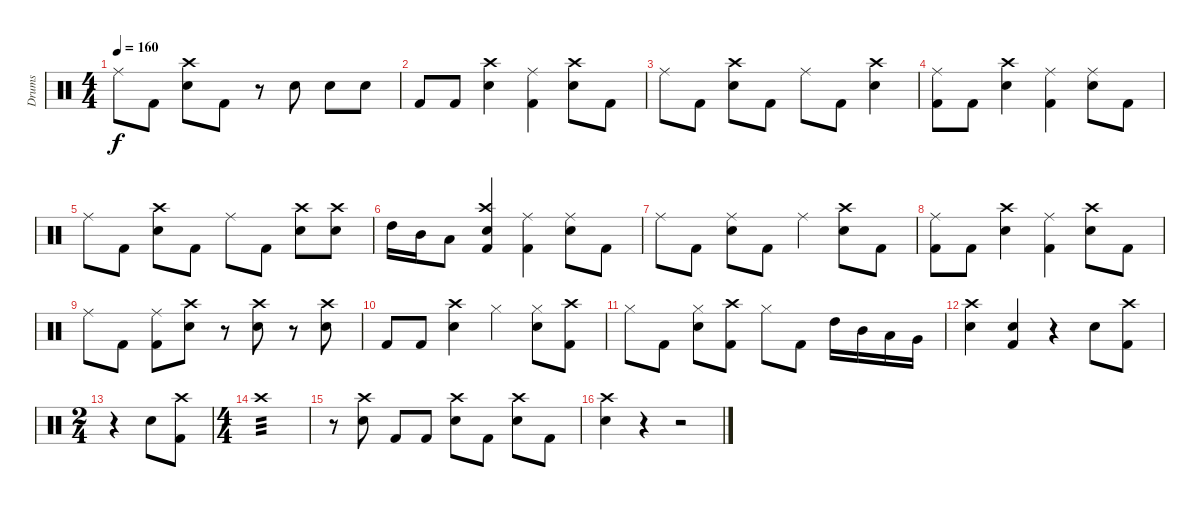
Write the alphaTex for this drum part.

\track ("Drums" "Drums") {instrument percussion}
\staff {score}
\articulation defaults
\ts (4 4)
\tempo 160
\clef neutral
\ks c "Ride (middle)".8{dy f} "Kick (hit) 2".8
("Crash high (hit)" "Electric Snare (hit)").8 "Kick (hit) 2".8 r.8 "Electric Snare (hit)".8 "Electric Snare (hit)".8 "Electric Snare (hit)".8 |
"Kick (hit) 2".8 "Kick (hit) 2".8 ("Crash high (hit)" "Electric Snare (hit)").4 ("Ride (middle)" "Kick (hit) 2").4 ("Crash high (hit)" "Electric Snare (hit)").8 "Kick (hit) 2".8 |
"Ride (middle)".8 "Kick (hit) 2".8 ("Crash high (hit)" "Electric Snare (hit)").8 "Kick (hit) 2".8 "Ride (middle)".8 "Kick (hit) 2".8 ("Crash high (hit)" "Electric Snare (hit)").4 |
("Ride (middle)" "Kick (hit) 2").8 "Kick (hit) 2".8 ("Crash high (hit)" "Electric Snare (hit)").4 ("Ride (middle)" "Kick (hit) 2").4 ("Ride (middle)" "Electric Snare (hit)").8 "Kick (hit) 2".8 |
"Ride (middle)".8 "Kick (hit) 2".8 ("Crash high (hit)" "Electric Snare (hit)").8 "Kick (hit) 2".8 "Ride (middle)".8 "Kick (hit) 2".8 ("Crash high (hit)" "Electric Snare (hit)").8 ("Crash high (hit)" "Electric Snare (hit)").8 |
"High Tom (hit)".16 "Mid Tom (hit)".16 "Low Tom (hit)".8 ("Crash high (hit)" "Electric Snare (hit)" "Kick (hit) 2").4 ("Ride (middle)" "Kick (hit) 2").4 ("Ride (middle)" "Electric Snare (hit)").8 "Kick (hit) 2".8 |
"Ride (middle)".8 "Kick (hit) 2".8 ("Ride (middle)" "Electric Snare (hit)").8 "Kick (hit) 2".8 "Ride (middle)".4 ("Crash high (hit)" "Electric Snare (hit)").8 "Kick (hit) 2".8 |
("Ride (middle)" "Kick (hit) 2").8 "Kick (hit) 2".8 ("Crash high (hit)" "Electric Snare (hit)").4 ("Ride (middle)" "Kick (hit) 2").4 ("Crash high (hit)" "Electric Snare (hit)").8 "Kick (hit) 2".8 |
"Ride (middle)".8 "Kick (hit) 2".8 ("Ride (middle)" "Kick (hit) 2").8 ("Crash high (hit)" "Electric Snare (hit)").8 r.8 ("Crash high (hit)" "Electric Snare (hit)").8 r.8 ("Crash high (hit)" "Electric Snare (hit)").8 |
"Kick (hit) 2".8 "Kick (hit) 2".8 ("Crash high (hit)" "Electric Snare (hit)").4 "Hi-Hat (closed)".4 ("Hi-Hat (closed)" "Electric Snare (hit)").8 ("Crash high (hit)" "Kick (hit) 2").8 |
"Hi-Hat (closed)".8 "Kick (hit) 2".8 ("Hi-Hat (closed)" "Electric Snare (hit)").8 ("Crash high (hit)" "Kick (hit) 2").8 "Hi-Hat (closed)".8 "Kick (hit) 2".8 "High Tom (hit)".16 "Mid Tom (hit)".16 "Low Tom (hit)".16 "Very Low Tom (hit)".16 |
("Crash high (hit)" "Electric Snare (hit)").4 ("Electric Snare (hit)" "Kick (hit) 2").4 r.4 "Electric Snare (hit)".8 ("Crash high (hit)" "Kick (hit) 2").8 |
\ts (2 4)
r.4 "Electric Snare (hit)".8 ("Crash high (hit)" "Kick (hit) 2").8 |
\ts (4 4)
"Crash high (hit)".1{tp 3} |
r.8 ("Crash high (hit)" "Electric Snare (hit)").8 "Kick (hit) 2".8 "Kick (hit) 2".8 ("Crash high (hit)" "Electric Snare (hit)").8 "Kick (hit) 2".8 ("Crash high (hit)" "Electric Snare (hit)").8 "Kick (hit) 2".8 |
("Crash high (hit)" "Electric Snare (hit)").4 r.4 r.2
